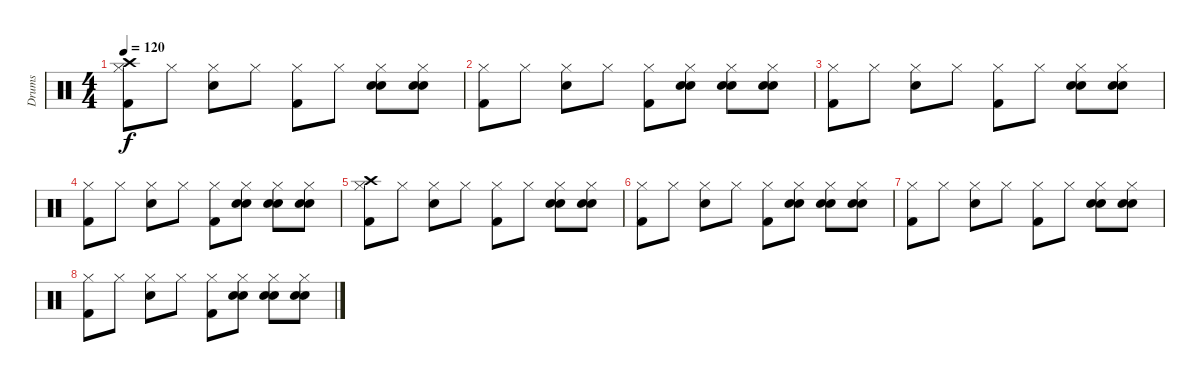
\track ("Drums" "Drums") {instrument percussion}
\staff {score}
\articulation defaults
\ts (4 4)
\tempo 120
\clef neutral
\ks c
("Crash high (hit)" "Hi-Hat (closed)" "Kick (hit) 2").8{dy f} "Hi-Hat (closed)".8 ("Hi-Hat (closed)" "Electric Snare (hit)").8 "Hi-Hat (closed)".8 ("Hi-Hat (closed)" "Kick (hit) 2").8 "Hi-Hat (closed)".8 ("Hi-Hat (closed)" "Hand Clap (hit)" "Electric Snare (hit)").8 ("Hi-Hat (closed)" "Hand Clap (hit)" "Electric Snare (hit)").8 |
("Hi-Hat (closed)" "Kick (hit) 2").8 "Hi-Hat (closed)".8 ("Hi-Hat (closed)" "Electric Snare (hit)").8 "Hi-Hat (closed)".8 ("Hi-Hat (closed)" "Kick (hit) 2").8 ("Hi-Hat (closed)" "Hand Clap (hit)" "Electric Snare (hit)").8 ("Hi-Hat (closed)" "Hand Clap (hit)" "Electric Snare (hit)").8 ("Hi-Hat (closed)" "Hand Clap (hit)" "Electric Snare (hit)").8 |
("Hi-Hat (closed)" "Kick (hit) 2").8 "Hi-Hat (closed)".8 ("Hi-Hat (closed)" "Electric Snare (hit)").8 "Hi-Hat (closed)".8 ("Hi-Hat (closed)" "Kick (hit) 2").8 "Hi-Hat (closed)".8 ("Hi-Hat (closed)" "Hand Clap (hit)" "Electric Snare (hit)").8 ("Hi-Hat (closed)" "Hand Clap (hit)" "Electric Snare (hit)").8 |
("Hi-Hat (closed)" "Kick (hit) 2").8 "Hi-Hat (closed)".8 ("Hi-Hat (closed)" "Electric Snare (hit)").8 "Hi-Hat (closed)".8 ("Hi-Hat (closed)" "Kick (hit) 2").8 ("Hi-Hat (closed)" "Hand Clap (hit)" "Electric Snare (hit)").8 ("Hi-Hat (closed)" "Hand Clap (hit)" "Electric Snare (hit)").8 ("Hi-Hat (closed)" "Hand Clap (hit)" "Electric Snare (hit)").8 |
("Crash high (hit)" "Hi-Hat (closed)" "Kick (hit) 2").8 "Hi-Hat (closed)".8 ("Hi-Hat (closed)" "Electric Snare (hit)").8 "Hi-Hat (closed)".8 ("Hi-Hat (closed)" "Kick (hit) 2").8 "Hi-Hat (closed)".8 ("Hi-Hat (closed)" "Hand Clap (hit)" "Electric Snare (hit)").8 ("Hi-Hat (closed)" "Hand Clap (hit)" "Electric Snare (hit)").8 |
("Hi-Hat (closed)" "Kick (hit) 2").8 "Hi-Hat (closed)".8 ("Hi-Hat (closed)" "Electric Snare (hit)").8 "Hi-Hat (closed)".8 ("Hi-Hat (closed)" "Kick (hit) 2").8 ("Hi-Hat (closed)" "Hand Clap (hit)" "Electric Snare (hit)").8 ("Hi-Hat (closed)" "Hand Clap (hit)" "Electric Snare (hit)").8 ("Hi-Hat (closed)" "Hand Clap (hit)" "Electric Snare (hit)").8 |
("Hi-Hat (closed)" "Kick (hit) 2").8 "Hi-Hat (closed)".8 ("Hi-Hat (closed)" "Electric Snare (hit)").8 "Hi-Hat (closed)".8 ("Hi-Hat (closed)" "Kick (hit) 2").8 "Hi-Hat (closed)".8 ("Hi-Hat (closed)" "Hand Clap (hit)" "Electric Snare (hit)").8 ("Hi-Hat (closed)" "Hand Clap (hit)" "Electric Snare (hit)").8 |
("Hi-Hat (closed)" "Kick (hit) 2").8 "Hi-Hat (closed)".8 ("Hi-Hat (closed)" "Electric Snare (hit)").8 "Hi-Hat (closed)".8 ("Hi-Hat (closed)" "Kick (hit) 2").8 ("Hi-Hat (closed)" "Hand Clap (hit)" "Electric Snare (hit)").8 ("Hi-Hat (closed)" "Hand Clap (hit)" "Electric Snare (hit)").8 ("Hi-Hat (closed)" "Hand Clap (hit)" "Electric Snare (hit)").8
